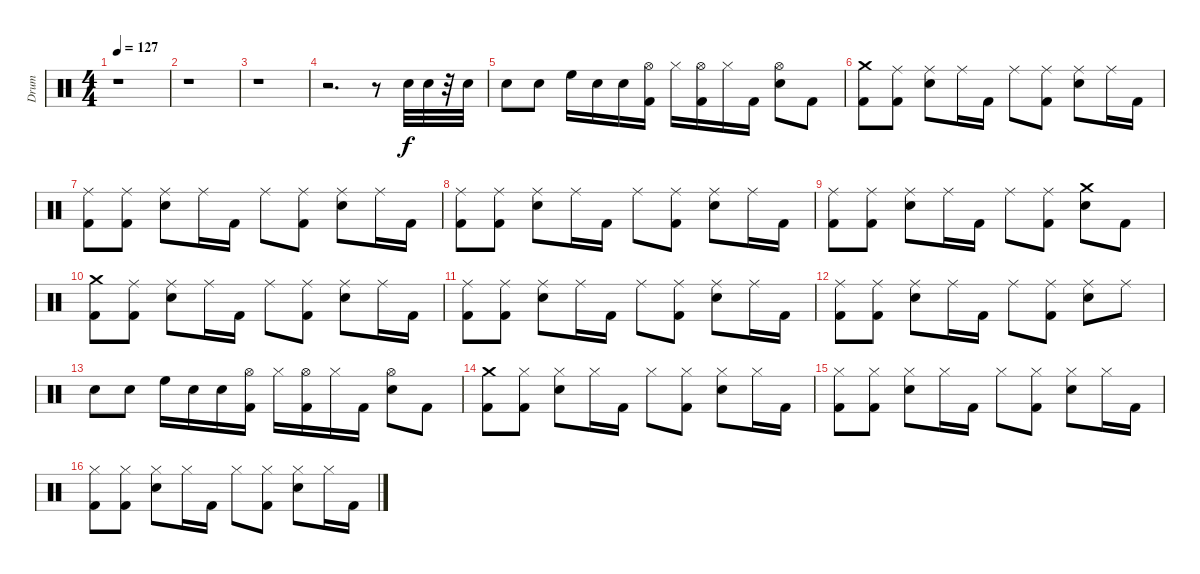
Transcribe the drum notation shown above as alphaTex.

\track ("Drum" "Drum") {instrument percussion}
\staff {score}
\articulation defaults
\ts (4 4)
\tempo 127
\clef neutral
\ks c
r.1{dy f} |
r.1 |
r.1 |
r.2{d} r.8 "Snare (hit) 2".32{volume 14} "Snare (hit) 2".32 r.32 "Snare (hit) 2".32 |
"Snare (hit) 2".8 "Snare (hit) 2".8 "High Floor Tom (hit)".16 "Snare (hit) 2".16 "Snare (hit) 2".16 ("Hi-Hat (open)" "Kick (hit) 2").16 "Hi-Hat (closed)".16 ("Hi-Hat (open)" "Kick (hit) 2").16 "Hi-Hat (closed)".16 "Kick (hit) 2".16 ("Hi-Hat (open)" "Snare (hit) 2").8 "Kick (hit) 2".8 |
("Crash medium (hit)" "Kick (hit) 2").8 ("Ride (middle)" "Kick (hit) 2").8 ("Ride (middle)" "Snare (hit) 2").8 "Ride (middle)".16 "Kick (hit) 2".16 "Ride (middle)".8 ("Ride (middle)" "Kick (hit) 2").8 ("Ride (middle)" "Snare (hit) 2").8 "Ride (middle)".16 "Kick (hit) 2".16 |
("Kick (hit) 2" "Ride (middle)").8 ("Ride (middle)" "Kick (hit) 2").8 ("Ride (middle)" "Snare (hit) 2").8 "Ride (middle)".16 "Kick (hit) 2".16 "Ride (middle)".8 ("Ride (middle)" "Kick (hit) 2").8 ("Ride (middle)" "Snare (hit) 2").8 "Ride (middle)".16 "Kick (hit) 2".16 |
("Kick (hit) 2" "Ride (middle)").8 ("Ride (middle)" "Kick (hit) 2").8 ("Ride (middle)" "Snare (hit) 2").8 "Ride (middle)".16 "Kick (hit) 2".16 "Ride (middle)".8 ("Ride (middle)" "Kick (hit) 2").8 ("Ride (middle)" "Snare (hit) 2").8 "Ride (middle)".16 "Kick (hit) 2".16 |
("Kick (hit) 2" "Ride (middle)").8 ("Ride (middle)" "Kick (hit) 2").8 ("Ride (middle)" "Snare (hit) 2").8 "Ride (middle)".16 "Kick (hit) 2".16 "Ride (middle)".8 ("Ride (middle)" "Kick (hit) 2").8 ("Crash medium (hit)" "Snare (hit) 2").8 "Kick (hit) 2".8 |
("Crash medium (hit)" "Kick (hit) 2").8 ("Ride (middle)" "Kick (hit) 2").8 ("Ride (middle)" "Snare (hit) 2").8 "Ride (middle)".16 "Kick (hit) 2".16 "Ride (middle)".8 ("Ride (middle)" "Kick (hit) 2").8 ("Ride (middle)" "Snare (hit) 2").8 "Ride (middle)".16 "Kick (hit) 2".16 |
("Kick (hit) 2" "Ride (middle)").8 ("Ride (middle)" "Kick (hit) 2").8 ("Ride (middle)" "Snare (hit) 2").8 "Ride (middle)".16 "Kick (hit) 2".16 "Ride (middle)".8 ("Ride (middle)" "Kick (hit) 2").8 ("Ride (middle)" "Snare (hit) 2").8 "Ride (middle)".16 "Kick (hit) 2".16 |
("Kick (hit) 2" "Ride (middle)").8 ("Ride (middle)" "Kick (hit) 2").8 ("Ride (middle)" "Snare (hit) 2").8 "Ride (middle)".16 "Kick (hit) 2".16 "Ride (middle)".8 ("Ride (middle)" "Kick (hit) 2").8 ("Ride (middle)" "Snare (hit) 2").8 "Ride (middle)".8 |
"Snare (hit) 2".8 "Snare (hit) 2".8 "High Floor Tom (hit)".16 "Snare (hit) 2".16 "Snare (hit) 2".16 ("Hi-Hat (open)" "Kick (hit) 2").16 "Hi-Hat (closed)".16 ("Hi-Hat (open)" "Kick (hit) 2").16 "Hi-Hat (closed)".16 "Kick (hit) 2".16 ("Hi-Hat (open)" "Snare (hit) 2").8 "Kick (hit) 2".8 |
("Crash medium (hit)" "Kick (hit) 2").8 ("Hi-Hat (closed)" "Kick (hit) 2").8 ("Hi-Hat (closed)" "Snare (hit) 2").8 "Hi-Hat (closed)".16 "Kick (hit) 2".16 "Hi-Hat (closed)".8 ("Hi-Hat (closed)" "Kick (hit) 2").8 ("Hi-Hat (closed)" "Snare (hit) 2").8 "Hi-Hat (closed)".16 "Kick (hit) 2".16 |
("Kick (hit) 2" "Hi-Hat (closed)").8 ("Hi-Hat (closed)" "Kick (hit) 2").8 ("Hi-Hat (closed)" "Snare (hit) 2").8 "Hi-Hat (closed)".16 "Kick (hit) 2".16 "Hi-Hat (closed)".8 ("Hi-Hat (closed)" "Kick (hit) 2").8 ("Hi-Hat (closed)" "Snare (hit) 2").8 "Hi-Hat (closed)".16 "Kick (hit) 2".16 |
("Kick (hit) 2" "Hi-Hat (closed)").8 ("Hi-Hat (closed)" "Kick (hit) 2").8 ("Hi-Hat (closed)" "Snare (hit) 2").8 "Hi-Hat (closed)".16 "Kick (hit) 2".16 "Hi-Hat (closed)".8 ("Hi-Hat (closed)" "Kick (hit) 2").8 ("Hi-Hat (closed)" "Snare (hit) 2").8 "Hi-Hat (closed)".16 "Kick (hit) 2".16
